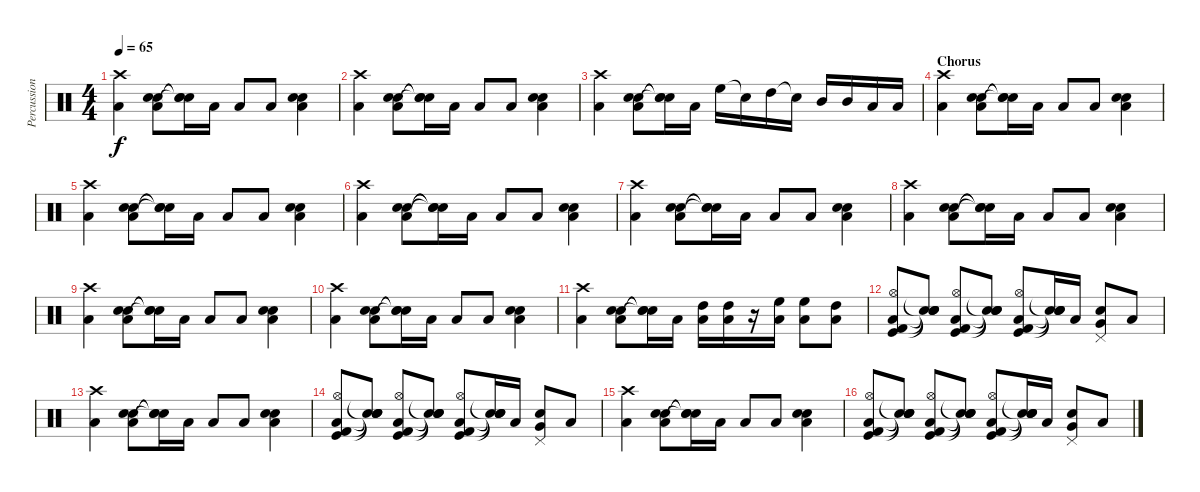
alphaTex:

\track ("Percussion" "Percussion") {instrument percussion}
\staff {score}
\articulation defaults
\ts (4 4)
\tempo 65
\clef neutral
\ks c
("Crash high (hit)" "Low Tom (hit)").4{dy f} ("Snare (hit) 2" "Electric Snare (hit)" "Low Tom (hit)").8 ("Snare (hit)"{t} "Snare (hit)"{t} "Snare (hit)"{t}).16 "Low Tom (hit)".16 "Low Tom (hit)".8 "Low Tom (hit)".8 ("Snare (hit) 2" "Electric Snare (hit)" "Low Tom (hit)").4 |
("Crash high (hit)" "Low Tom (hit)").4 ("Snare (hit) 2" "Electric Snare (hit)" "Low Tom (hit)").8 ("Snare (hit)"{t} "Snare (hit)"{t} "Snare (hit)"{t}).16 "Low Tom (hit)".16 "Low Tom (hit)".8 "Low Tom (hit)".8 ("Snare (hit) 2" "Electric Snare (hit)" "Low Tom (hit)").4 |
("Crash high (hit)" "Low Tom (hit)").4 ("Electric Snare (hit)" "Snare (hit) 2" "Low Tom (hit)").8 ("Snare (hit)"{t} "Snare (hit)"{t} "Snare (hit)"{t}).16 "Low Tom (hit)".16 "High Floor Tom (hit)".16 "Snare (hit)"{t}.16 "High Tom (hit)".16 "Snare (hit)"{t}.16 "Mid Tom (hit)".16 "Mid Tom (hit)".16 "Low Tom (hit)".16 "Low Tom (hit)".16 |
\section ("" "Chorus")
("Crash high (hit)" "Low Tom (hit)").4 ("Snare (hit) 2" "Electric Snare (hit)" "Low Tom (hit)").8 ("Snare (hit)"{t} "Snare (hit)"{t} "Snare (hit)"{t}).16 "Low Tom (hit)".16 "Low Tom (hit)".8 "Low Tom (hit)".8 ("Snare (hit) 2" "Electric Snare (hit)" "Low Tom (hit)").4 |
("Crash high (hit)" "Low Tom (hit)").4 ("Snare (hit) 2" "Electric Snare (hit)" "Low Tom (hit)").8 ("Snare (hit)"{t} "Snare (hit)"{t} "Snare (hit)"{t}).16 "Low Tom (hit)".16 "Low Tom (hit)".8 "Low Tom (hit)".8 ("Snare (hit) 2" "Electric Snare (hit)" "Low Tom (hit)").4 |
("Crash high (hit)" "Low Tom (hit)").4 ("Snare (hit) 2" "Electric Snare (hit)" "Low Tom (hit)").8 ("Snare (hit)"{t} "Snare (hit)"{t} "Snare (hit)"{t}).16 "Low Tom (hit)".16 "Low Tom (hit)".8 "Low Tom (hit)".8 ("Snare (hit) 2" "Electric Snare (hit)" "Low Tom (hit)").4 |
("Crash high (hit)" "Low Tom (hit)").4 ("Snare (hit) 2" "Electric Snare (hit)" "Low Tom (hit)").8 ("Snare (hit)"{t} "Snare (hit)"{t} "Snare (hit)"{t}).16 "Low Tom (hit)".16 "Low Tom (hit)".8 "Low Tom (hit)".8 ("Snare (hit) 2" "Electric Snare (hit)" "Low Tom (hit)").4 |
("Crash high (hit)" "Low Tom (hit)").4 ("Snare (hit) 2" "Electric Snare (hit)" "Low Tom (hit)").8 ("Snare (hit)"{t} "Snare (hit)"{t} "Snare (hit)"{t}).16 "Low Tom (hit)".16 "Low Tom (hit)".8 "Low Tom (hit)".8 ("Snare (hit) 2" "Electric Snare (hit)" "Low Tom (hit)").4 |
("Crash high (hit)" "Low Tom (hit)").4 ("Snare (hit) 2" "Electric Snare (hit)" "Low Tom (hit)").8 ("Snare (hit)"{t} "Snare (hit)"{t} "Snare (hit)"{t}).16 "Low Tom (hit)".16 "Low Tom (hit)".8 "Low Tom (hit)".8 ("Snare (hit) 2" "Electric Snare (hit)" "Low Tom (hit)").4 |
("Crash high (hit)" "Low Tom (hit)").4 ("Snare (hit) 2" "Electric Snare (hit)" "Low Tom (hit)").8 ("Snare (hit)"{t} "Snare (hit)"{t} "Snare (hit)"{t}).16 "Low Tom (hit)".16 "Low Tom (hit)".8 "Low Tom (hit)".8 ("Snare (hit) 2" "Electric Snare (hit)" "Low Tom (hit)").4 |
("Crash high (hit)" "Low Tom (hit)").4 ("Snare (hit) 2" "Electric Snare (hit)" "Low Tom (hit)").8 ("Snare (hit)"{t} "Snare (hit)"{t} "Snare (hit)"{t}).16 "Low Tom (hit)".16 ("High Tom (hit)" "Low Tom (hit)").16 ("High Tom (hit)" "Low Tom (hit)").16 r.16 ("High Floor Tom (hit)" "Low Tom (hit)").16 ("High Floor Tom (hit)" "Low Tom (hit)").8 ("Low Tom (hit)" "High Tom (hit)").8 |
("Kick (hit) 2" "Hi-Hat (open)" "Low Tom (hit)" "Kick (hit)").8 ("Snare (hit)"{t} "Snare (hit)"{t} "Snare (hit)"{t} "Snare (hit)"{t}).8 ("Kick (hit) 2" "Hi-Hat (open)" "Low Tom (hit)" "Kick (hit)").8 ("Snare (hit)"{t} "Snare (hit)"{t} "Snare (hit)"{t} "Snare (hit)"{t}).8 ("Kick (hit) 2" "Hi-Hat (open)" "Low Tom (hit)" "Kick (hit)").8 ("Snare (hit)"{t} "Snare (hit)"{t} "Snare (hit)"{t} "Snare (hit)"{t}).16 "Low Tom (hit)".16 ("Pedal Hi-Hat (hit)" "Very Low Tom (hit)" "Electric Snare (hit)").8 "Low Tom (hit)".8 |
("Crash high (hit)" "Low Tom (hit)").4 ("Snare (hit) 2" "Electric Snare (hit)" "Low Tom (hit)").8 ("Snare (hit)"{t} "Snare (hit)"{t} "Snare (hit)"{t}).16 "Low Tom (hit)".16 "Low Tom (hit)".8 "Low Tom (hit)".8 ("Snare (hit) 2" "Electric Snare (hit)" "Low Tom (hit)").4 |
("Kick (hit) 2" "Hi-Hat (open)" "Low Tom (hit)" "Kick (hit)").8 ("Snare (hit)"{t} "Snare (hit)"{t} "Snare (hit)"{t} "Snare (hit)"{t}).8 ("Kick (hit) 2" "Hi-Hat (open)" "Low Tom (hit)" "Kick (hit)").8 ("Snare (hit)"{t} "Snare (hit)"{t} "Snare (hit)"{t} "Snare (hit)"{t}).8 ("Kick (hit) 2" "Hi-Hat (open)" "Low Tom (hit)" "Kick (hit)").8 ("Snare (hit)"{t} "Snare (hit)"{t} "Snare (hit)"{t} "Snare (hit)"{t}).16 "Low Tom (hit)".16 ("Pedal Hi-Hat (hit)" "Very Low Tom (hit)" "Electric Snare (hit)").8 "Low Tom (hit)".8 |
("Crash high (hit)" "Low Tom (hit)").4 ("Snare (hit) 2" "Electric Snare (hit)" "Low Tom (hit)").8 ("Snare (hit)"{t} "Snare (hit)"{t} "Snare (hit)"{t}).16 "Low Tom (hit)".16 "Low Tom (hit)".8 "Low Tom (hit)".8 ("Snare (hit) 2" "Electric Snare (hit)" "Low Tom (hit)").4 |
("Kick (hit) 2" "Hi-Hat (open)" "Low Tom (hit)" "Kick (hit)").8 ("Snare (hit)"{t} "Snare (hit)"{t} "Snare (hit)"{t} "Snare (hit)"{t}).8 ("Kick (hit) 2" "Hi-Hat (open)" "Low Tom (hit)" "Kick (hit)").8 ("Snare (hit)"{t} "Snare (hit)"{t} "Snare (hit)"{t} "Snare (hit)"{t}).8 ("Kick (hit) 2" "Hi-Hat (open)" "Low Tom (hit)" "Kick (hit)").8 ("Snare (hit)"{t} "Snare (hit)"{t} "Snare (hit)"{t} "Snare (hit)"{t}).16 "Low Tom (hit)".16 ("Pedal Hi-Hat (hit)" "Very Low Tom (hit)" "Electric Snare (hit)").8 "Low Tom (hit)".8
